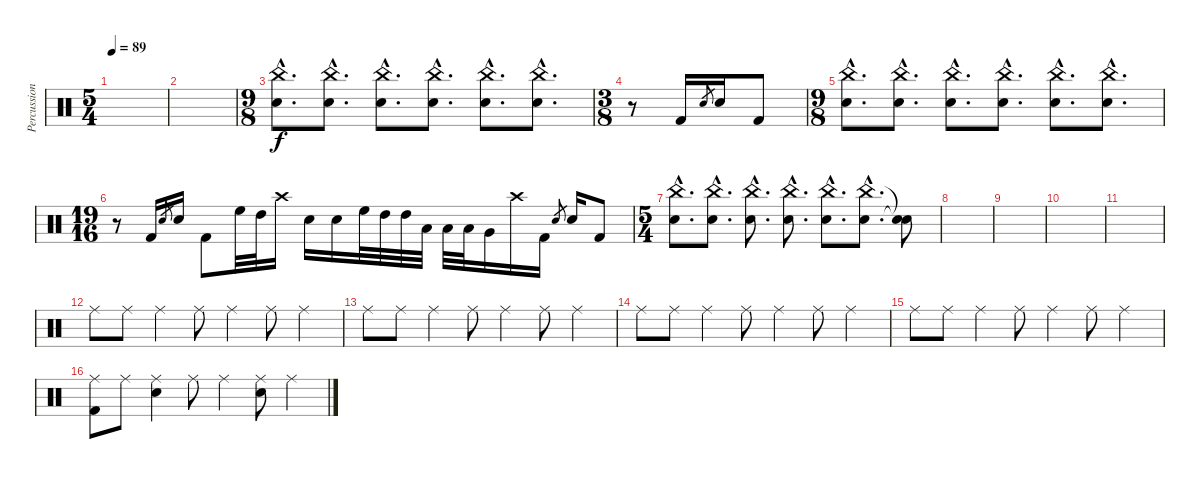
\track ("Percussion" "Percussion") {instrument percussion}
\staff {score}
\articulation defaults
\ts (5 4)
\tempo 89
\clef neutral
\ks c
|
|
\ts (9 8)
("China (hit)"{hac} "Snare (hit) 2"{hac}).8{d} ("China (hit)"{hac} "Snare (hit) 2"{hac}).8{d} ("China (hit)"{hac} "Snare (hit) 2"{hac}).8{d} ("China (hit)"{hac} "Snare (hit) 2"{hac}).8{d} ("China (hit)"{hac} "Snare (hit) 2"{hac}).8{d} ("China (hit)"{hac} "Snare (hit) 2"{hac}).8{d} |
\ts (3 8)
r.8 "Kick (hit) 2".16 "Snare (hit) 2".8{gr} "Snare (hit) 2".16 "Kick (hit) 2".8 |
\ts (9 8)
("China (hit)"{hac} "Snare (hit) 2"{hac}).8{d} ("China (hit)"{hac} "Snare (hit) 2"{hac}).8{d} ("China (hit)"{hac} "Snare (hit) 2"{hac}).8{d} ("China (hit)"{hac} "Snare (hit) 2"{hac}).8{d} ("China (hit)"{hac} "Snare (hit) 2"{hac}).8{d} ("China (hit)"{hac} "Snare (hit) 2"{hac}).8{d} |
\ts (19 16)
r.8 "Kick (hit) 2".16 "Snare (hit) 2".8{gr} "Snare (hit) 2".16 "Kick (hit) 2".8 "High Floor Tom (hit)".32 "High Tom (hit)".32 "Crash high (hit)".16 "Snare (hit) 2".16 "Snare (hit) 2".16 "High Floor Tom (hit)".32 "High Tom (hit)".32 "High Tom (hit)".32 "Low Tom (hit)".32 "Low Tom (hit)".32 "Low Tom (hit)".32 "Very Low Tom (hit)".16 "Crash high (hit)".16 "Kick (hit) 2".16 "Snare (hit) 2".8{gr} "Snare (hit) 2".16 "Kick (hit) 2".8 |
\ts (5 4)
("China (hit)"{hac} "Snare (hit) 2"{hac}).8{d} ("China (hit)"{hac} "Snare (hit) 2"{hac}).8{d} ("China (hit)"{hac} "Snare (hit) 2"{hac}).8{d} ("China (hit)"{hac} "Snare (hit) 2"{hac}).8{d} ("China (hit)"{hac} "Snare (hit) 2"{hac}).8{d} ("China (hit)"{hac} "Snare (hit) 2"{hac}).8{d} ("Snare (hit)"{t} "Snare (hit)"{t}).8 |
|
|
|
|
"Ride (middle)".8 "Ride (middle)".8 "Ride (middle)".4 "Ride (middle)".8 "Ride (middle)".4 "Ride (middle)".8 "Ride (middle)".4 |
"Ride (middle)".8 "Ride (middle)".8 "Ride (middle)".4 "Ride (middle)".8 "Ride (middle)".4 "Ride (middle)".8 "Ride (middle)".4 |
"Ride (middle)".8 "Ride (middle)".8 "Ride (middle)".4 "Ride (middle)".8 "Ride (middle)".4 "Ride (middle)".8 "Ride (middle)".4 |
"Ride (middle)".8 "Ride (middle)".8 "Ride (middle)".4 "Ride (middle)".8 "Ride (middle)".4 "Ride (middle)".8 "Ride (middle)".4 |
("Ride (middle)" "Kick (hit) 2").8 "Ride (middle)".8 ("Ride (middle)" "Snare (hit) 2").4 "Ride (middle)".8 "Ride (middle)".4 ("Ride (middle)" "Snare (hit) 2").8 "Ride (middle)".4
